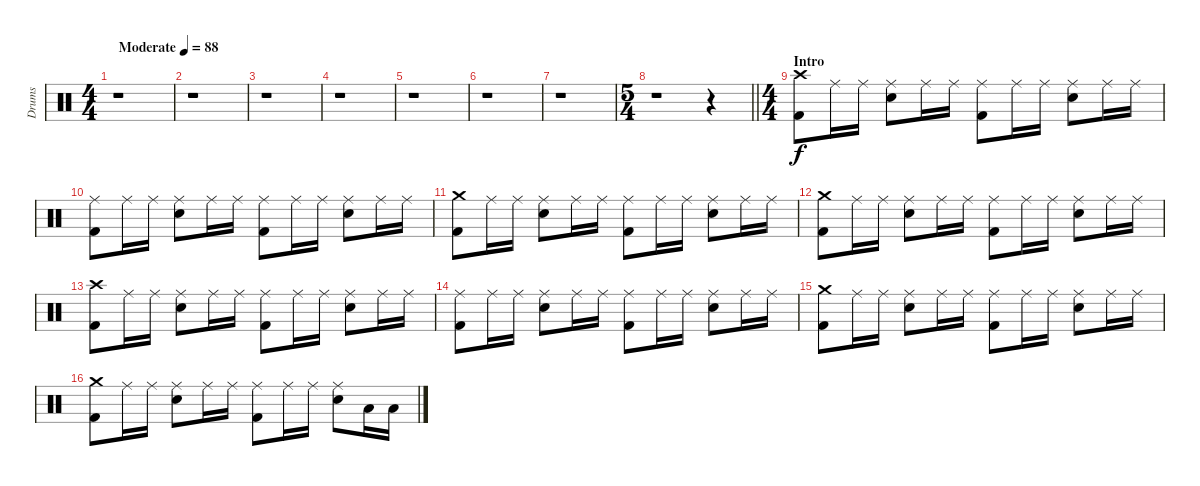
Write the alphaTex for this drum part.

\track ("Drums" "Drums") {instrument percussion}
\staff {score}
\articulation defaults
\ts (4 4)
\tempo (88 "Moderate")
\clef neutral
\ks c
r.1{dy f} |
r.1 |
r.1 |
r.1 |
r.1 |
r.1 |
r.1 |
\ts (5 4)
\barLineRight lightlight
r.1 r.4 |
\ts (4 4)
\section ("" "Intro")
("Crash high (hit)" "Kick (hit) 2").8 "Ride (middle)".16 "Ride (middle)".16 ("Ride (middle)" "Snare (hit) 2").8 "Ride (middle)".16 "Ride (middle)".16 ("Ride (middle)" "Kick (hit) 2").8 "Ride (middle)".16 "Ride (middle)".16 ("Ride (middle)" "Snare (hit) 2").8 "Ride (middle)".16 "Ride (middle)".16 |
("Ride (middle)" "Kick (hit) 2").8 "Ride (middle)".16 "Ride (middle)".16 ("Ride (middle)" "Snare (hit) 2").8 "Ride (middle)".16 "Ride (middle)".16 ("Ride (middle)" "Kick (hit) 2").8 "Ride (middle)".16 "Ride (middle)".16 ("Ride (middle)" "Snare (hit) 2").8 "Ride (middle)".16 "Ride (middle)".16 |
("Crash medium (hit)" "Kick (hit) 2").8 "Ride (middle)".16 "Ride (middle)".16 ("Ride (middle)" "Snare (hit) 2").8 "Ride (middle)".16 "Ride (middle)".16 ("Ride (middle)" "Kick (hit) 2").8 "Ride (middle)".16 "Ride (middle)".16 ("Ride (middle)" "Snare (hit) 2").8 "Ride (middle)".16 "Ride (middle)".16 |
("Crash medium (hit)" "Kick (hit) 2").8 "Ride (middle)".16 "Ride (middle)".16 ("Ride (middle)" "Snare (hit) 2").8 "Ride (middle)".16 "Ride (middle)".16 ("Ride (middle)" "Kick (hit) 2").8 "Ride (middle)".16 "Ride (middle)".16 ("Ride (middle)" "Snare (hit) 2").8 "Ride (middle)".16 "Ride (middle)".16 |
("Crash high (hit)" "Kick (hit) 2").8 "Ride (middle)".16 "Ride (middle)".16 ("Ride (middle)" "Snare (hit) 2").8 "Ride (middle)".16 "Ride (middle)".16 ("Ride (middle)" "Kick (hit) 2").8 "Ride (middle)".16 "Ride (middle)".16 ("Ride (middle)" "Snare (hit) 2").8 "Ride (middle)".16 "Ride (middle)".16 |
("Ride (middle)" "Kick (hit) 2").8 "Ride (middle)".16 "Ride (middle)".16 ("Ride (middle)" "Snare (hit) 2").8 "Ride (middle)".16 "Ride (middle)".16 ("Ride (middle)" "Kick (hit) 2").8 "Ride (middle)".16 "Ride (middle)".16 ("Ride (middle)" "Snare (hit) 2").8 "Ride (middle)".16 "Ride (middle)".16 |
("Crash medium (hit)" "Kick (hit) 2").8 "Ride (middle)".16 "Ride (middle)".16 ("Ride (middle)" "Snare (hit) 2").8 "Ride (middle)".16 "Ride (middle)".16 ("Ride (middle)" "Kick (hit) 2").8 "Ride (middle)".16 "Ride (middle)".16 ("Ride (middle)" "Snare (hit) 2").8 "Ride (middle)".16 "Ride (middle)".16 |
("Crash medium (hit)" "Kick (hit) 2").8 "Ride (middle)".16 "Ride (middle)".16 ("Ride (middle)" "Snare (hit) 2").8 "Ride (middle)".16 "Ride (middle)".16 ("Ride (middle)" "Kick (hit) 2").8 "Ride (middle)".16 "Ride (middle)".16 ("Ride (middle)" "Snare (hit) 2").8 "Low Tom (hit)".16 "Low Tom (hit)".16
